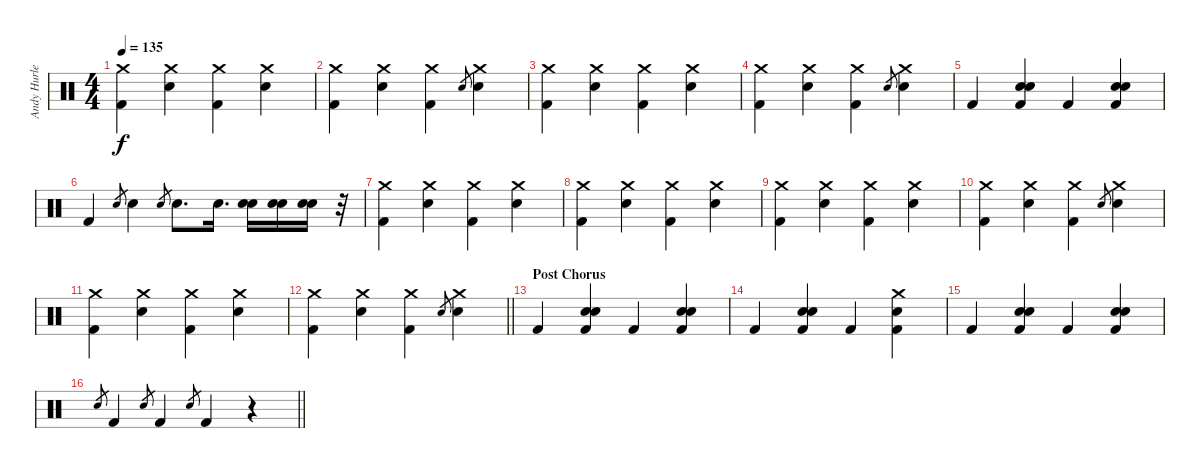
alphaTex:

\track ("Andy Hurley" "Andy Hurle") {instrument percussion}
\staff {score}
\articulation defaults
\ts (4 4)
\tempo 135
\clef neutral
\ks c
("Crash medium (hit)" "Kick (hit) 2").4{dy f} ("Crash medium (hit)" "Electric Snare (hit)").4 ("Crash medium (hit)" "Kick (hit) 2").4 ("Crash medium (hit)" "Electric Snare (hit)").4 |
("Crash medium (hit)" "Kick (hit) 2").4 ("Crash medium (hit)" "Electric Snare (hit)").4 ("Crash medium (hit)" "Kick (hit) 2").4 "Electric Snare (hit)".8{gr} ("Crash medium (hit)" "Electric Snare (hit)").4 |
("Crash medium (hit)" "Kick (hit) 2").4 ("Crash medium (hit)" "Electric Snare (hit)").4 ("Crash medium (hit)" "Kick (hit) 2").4 ("Crash medium (hit)" "Electric Snare (hit)").4 |
("Crash medium (hit)" "Kick (hit) 2").4 ("Crash medium (hit)" "Electric Snare (hit)").4 ("Crash medium (hit)" "Kick (hit) 2").4 "Electric Snare (hit)".8{gr} ("Crash medium (hit)" "Electric Snare (hit)").4 |
"Kick (hit) 2".4 ("Electric Snare (hit)" "Electric Snare (hit)" "Kick (hit) 2").4 "Kick (hit) 2".4 ("Electric Snare (hit)" "Electric Snare (hit)" "Kick (hit) 2").4 |
"Kick (hit) 2".4 "Electric Snare (hit)".8{gr} "Electric Snare (hit)".4 "Electric Snare (hit)".8{gr} "Electric Snare (hit)".8{d} "Electric Snare (hit)".16{d} ("Electric Snare (hit)" "Electric Snare (hit)").16 ("Electric Snare (hit)" "Electric Snare (hit)").16 ("Electric Snare (hit)" "Electric Snare (hit)").16 r.32 |
("Crash medium (hit)" "Kick (hit) 2").4 ("Crash medium (hit)" "Electric Snare (hit)").4 ("Crash medium (hit)" "Kick (hit) 2").4 ("Crash medium (hit)" "Electric Snare (hit)").4 |
("Crash medium (hit)" "Kick (hit) 2").4 ("Crash medium (hit)" "Electric Snare (hit)").4 ("Crash medium (hit)" "Kick (hit) 2").4 ("Crash medium (hit)" "Electric Snare (hit)").4 |
("Crash medium (hit)" "Kick (hit) 2").4 ("Crash medium (hit)" "Electric Snare (hit)").4 ("Crash medium (hit)" "Kick (hit) 2").4 ("Crash medium (hit)" "Electric Snare (hit)").4 |
("Crash medium (hit)" "Kick (hit) 2").4 ("Crash medium (hit)" "Electric Snare (hit)").4 ("Crash medium (hit)" "Kick (hit) 2").4 "Electric Snare (hit)".8{gr} ("Crash medium (hit)" "Electric Snare (hit)").4 |
("Crash medium (hit)" "Kick (hit) 2").4 ("Crash medium (hit)" "Electric Snare (hit)").4 ("Crash medium (hit)" "Kick (hit) 2").4 ("Crash medium (hit)" "Electric Snare (hit)").4 |
\barLineRight lightlight
("Crash medium (hit)" "Kick (hit) 2").4 ("Crash medium (hit)" "Electric Snare (hit)").4 ("Crash medium (hit)" "Kick (hit) 2").4 "Electric Snare (hit)".8{gr} ("Crash medium (hit)" "Electric Snare (hit)").4 |
\section ("" "Post Chorus")
"Kick (hit) 2".4 ("Electric Snare (hit)" "Electric Snare (hit)" "Kick (hit) 2").4 "Kick (hit) 2".4 ("Electric Snare (hit)" "Electric Snare (hit)" "Kick (hit) 2").4 |
"Kick (hit) 2".4 ("Electric Snare (hit)" "Electric Snare (hit)" "Kick (hit) 2").4 "Kick (hit) 2".4 ("Crash medium (hit)" "Electric Snare (hit)" "Kick (hit) 2").4 |
"Kick (hit) 2".4 ("Electric Snare (hit)" "Electric Snare (hit)" "Kick (hit) 2").4 "Kick (hit) 2".4 ("Electric Snare (hit)" "Electric Snare (hit)" "Kick (hit) 2").4 |
\barLineRight lightlight "Electric Snare (hit)".8{gr} "Kick (hit) 2".4 "Electric Snare (hit)".8{gr} "Kick (hit) 2".4 "Electric Snare (hit)".8{gr} "Kick (hit) 2".4
r.4
